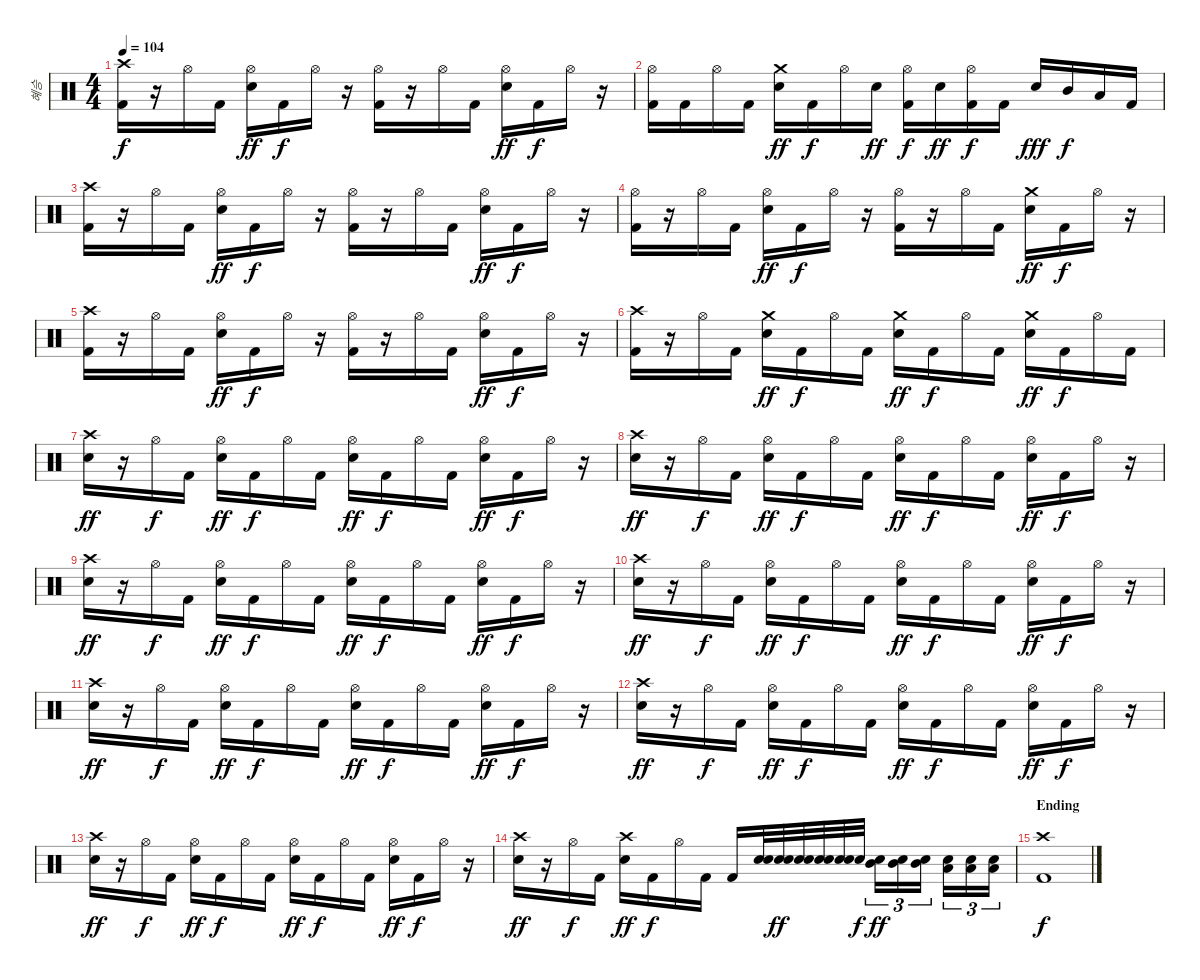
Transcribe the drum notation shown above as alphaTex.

\track ("혜승" "혜승") {instrument percussion}
\staff {score}
\articulation defaults
\ts (4 4)
\tempo 104
\clef neutral
\ks c
("Crash high (hit)" "Kick (hit) 2").16{dy f} r.16 "Hi-Hat (open)".16 "Kick (hit) 2".16 ("Hi-Hat (open)" "Electric Snare (hit)").16{dy ff} "Kick (hit) 2".16{dy f} "Hi-Hat (open)".16 r.16 ("Hi-Hat (open)" "Kick (hit) 2").16 r.16 "Hi-Hat (open)".16 "Kick (hit) 2".16 ("Hi-Hat (open)" "Electric Snare (hit)").16{dy ff} "Kick (hit) 2".16{dy f} "Hi-Hat (open)".16 r.16 |
("Hi-Hat (open)" "Kick (hit) 2").16 "Kick (hit) 2".16 "Hi-Hat (open)".16 "Kick (hit) 2".16 ("Crash medium (hit)" "Electric Snare (hit)").16{dy ff} "Kick (hit) 2".16{dy f} "Hi-Hat (open)".16 "Electric Snare (hit)".16{dy ff} ("Hi-Hat (open)" "Kick (hit) 2").16{dy f} "Electric Snare (hit)".16{dy ff} ("Hi-Hat (open)" "Kick (hit) 2").16{dy f} "Kick (hit) 2".16 "Electric Snare (hit)".16{dy fff} "Mid Tom (hit)".16{dy f} "Low Tom (hit)".16 "Kick (hit) 2".16 |
("Crash high (hit)" "Kick (hit) 2").16 r.16 "Hi-Hat (open)".16 "Kick (hit) 2".16 ("Hi-Hat (open)" "Electric Snare (hit)").16{dy ff} "Kick (hit) 2".16{dy f} "Hi-Hat (open)".16 r.16 ("Hi-Hat (open)" "Kick (hit) 2").16 r.16 "Hi-Hat (open)".16 "Kick (hit) 2".16 ("Hi-Hat (open)" "Electric Snare (hit)").16{dy ff} "Kick (hit) 2".16{dy f} "Hi-Hat (open)".16 r.16 |
("Hi-Hat (open)" "Kick (hit) 2").16 r.16 "Hi-Hat (open)".16 "Kick (hit) 2".16 ("Hi-Hat (open)" "Electric Snare (hit)").16{dy ff} "Kick (hit) 2".16{dy f} "Hi-Hat (open)".16 r.16 ("Hi-Hat (open)" "Kick (hit) 2").16 r.16 "Hi-Hat (open)".16 "Kick (hit) 2".16 ("Crash medium (hit)" "Electric Snare (hit)").16{dy ff} "Kick (hit) 2".16{dy f} "Hi-Hat (open)".16 r.16 |
("Crash high (hit)" "Kick (hit) 2").16 r.16 "Hi-Hat (open)".16 "Kick (hit) 2".16 ("Hi-Hat (open)" "Electric Snare (hit)").16{dy ff} "Kick (hit) 2".16{dy f} "Hi-Hat (open)".16 r.16 ("Hi-Hat (open)" "Kick (hit) 2").16 r.16 "Hi-Hat (open)".16 "Kick (hit) 2".16 ("Hi-Hat (open)" "Electric Snare (hit)").16{dy ff} "Kick (hit) 2".16{dy f} "Hi-Hat (open)".16 r.16 |
("Crash high (hit)" "Kick (hit) 2").16 r.16 "Hi-Hat (open)".16 "Kick (hit) 2".16 ("Crash medium (hit)" "Electric Snare (hit)").16{dy ff} "Kick (hit) 2".16{dy f} "Hi-Hat (open)".16 "Kick (hit) 2".16 ("Crash medium (hit)" "Electric Snare (hit)").16{dy ff} "Kick (hit) 2".16{dy f} "Hi-Hat (open)".16 "Kick (hit) 2".16 ("Crash medium (hit)" "Electric Snare (hit)").16{dy ff} "Kick (hit) 2".16{dy f} "Hi-Hat (open)".16 "Kick (hit) 2".16 |
("Crash high (hit)" "Electric Snare (hit)").16{dy ff} r.16 "Hi-Hat (open)".16{dy f} "Kick (hit) 2".16 ("Hi-Hat (open)" "Electric Snare (hit)").16{dy ff} "Kick (hit) 2".16{dy f} "Hi-Hat (open)".16 "Kick (hit) 2".16 ("Hi-Hat (open)" "Electric Snare (hit)").16{dy ff} "Kick (hit) 2".16{dy f} "Hi-Hat (open)".16 "Kick (hit) 2".16 ("Hi-Hat (open)" "Electric Snare (hit)").16{dy ff} "Kick (hit) 2".16{dy f} "Hi-Hat (open)".16 r.16 |
("Crash high (hit)" "Electric Snare (hit)").16{dy ff} r.16 "Hi-Hat (open)".16{dy f} "Kick (hit) 2".16 ("Hi-Hat (open)" "Electric Snare (hit)").16{dy ff} "Kick (hit) 2".16{dy f} "Hi-Hat (open)".16 "Kick (hit) 2".16 ("Hi-Hat (open)" "Electric Snare (hit)").16{dy ff} "Kick (hit) 2".16{dy f} "Hi-Hat (open)".16 "Kick (hit) 2".16 ("Hi-Hat (open)" "Electric Snare (hit)").16{dy ff} "Kick (hit) 2".16{dy f} "Hi-Hat (open)".16 r.16 |
("Crash high (hit)" "Electric Snare (hit)").16{dy ff} r.16 "Hi-Hat (open)".16{dy f} "Kick (hit) 2".16 ("Hi-Hat (open)" "Electric Snare (hit)").16{dy ff} "Kick (hit) 2".16{dy f} "Hi-Hat (open)".16 "Kick (hit) 2".16 ("Hi-Hat (open)" "Electric Snare (hit)").16{dy ff} "Kick (hit) 2".16{dy f} "Hi-Hat (open)".16 "Kick (hit) 2".16 ("Hi-Hat (open)" "Electric Snare (hit)").16{dy ff} "Kick (hit) 2".16{dy f} "Hi-Hat (open)".16 r.16 |
("Crash high (hit)" "Electric Snare (hit)").16{dy ff} r.16 "Hi-Hat (open)".16{dy f} "Kick (hit) 2".16 ("Hi-Hat (open)" "Electric Snare (hit)").16{dy ff} "Kick (hit) 2".16{dy f} "Hi-Hat (open)".16 "Kick (hit) 2".16 ("Hi-Hat (open)" "Electric Snare (hit)").16{dy ff} "Kick (hit) 2".16{dy f} "Hi-Hat (open)".16 "Kick (hit) 2".16 ("Hi-Hat (open)" "Electric Snare (hit)").16{dy ff} "Kick (hit) 2".16{dy f} "Hi-Hat (open)".16 r.16 |
("Crash high (hit)" "Electric Snare (hit)").16{dy ff} r.16 "Hi-Hat (open)".16{dy f} "Kick (hit) 2".16 ("Hi-Hat (open)" "Electric Snare (hit)").16{dy ff} "Kick (hit) 2".16{dy f} "Hi-Hat (open)".16 "Kick (hit) 2".16 ("Hi-Hat (open)" "Electric Snare (hit)").16{dy ff} "Kick (hit) 2".16{dy f} "Hi-Hat (open)".16 "Kick (hit) 2".16 ("Hi-Hat (open)" "Electric Snare (hit)").16{dy ff} "Kick (hit) 2".16{dy f} "Hi-Hat (open)".16 r.16 |
("Crash high (hit)" "Electric Snare (hit)").16{dy ff} r.16 "Hi-Hat (open)".16{dy f} "Kick (hit) 2".16 ("Hi-Hat (open)" "Electric Snare (hit)").16{dy ff} "Kick (hit) 2".16{dy f} "Hi-Hat (open)".16 "Kick (hit) 2".16 ("Hi-Hat (open)" "Electric Snare (hit)").16{dy ff} "Kick (hit) 2".16{dy f} "Hi-Hat (open)".16 "Kick (hit) 2".16 ("Hi-Hat (open)" "Electric Snare (hit)").16{dy ff} "Kick (hit) 2".16{dy f} "Hi-Hat (open)".16 r.16 |
("Crash high (hit)" "Electric Snare (hit)").16{dy ff} r.16 "Hi-Hat (open)".16{dy f} "Kick (hit) 2".16 ("Hi-Hat (open)" "Electric Snare (hit)").16{dy ff} "Kick (hit) 2".16{dy f} "Hi-Hat (open)".16 "Kick (hit) 2".16 ("Hi-Hat (open)" "Electric Snare (hit)").16{dy ff} "Kick (hit) 2".16{dy f} "Hi-Hat (open)".16 "Kick (hit) 2".16 ("Hi-Hat (open)" "Electric Snare (hit)").16{dy ff} "Kick (hit) 2".16{dy f} "Hi-Hat (open)".16 r.16 |
("Crash high (hit)" "Electric Snare (hit)").16{dy ff} r.16 "Hi-Hat (open)".16{dy f} "Kick (hit) 2".16 ("Crash high (hit)" "Electric Snare (hit)").16{dy ff} "Kick (hit) 2".16{dy f} "Hi-Hat (open)".16 "Kick (hit) 2".16 "Kick (hit) 2".16 ("Electric Snare (hit)" "Snare (hit)"{x}).32 ("Electric Snare (hit)" "Snare (hit)"{x}).32{dy ff} ("Electric Snare (hit)" "Snare (hit)"{x}).32 ("Electric Snare (hit)" "Snare (hit)"{x}).32 ("Electric Snare (hit)" "Snare (hit)"{x}).32 "Snare (hit)"{x}.32{dy f} ("Mid Tom (hit)" "Snare (hit)"{x}).16{tu (3 2) dy ff} ("Mid Tom (hit)" "Snare (hit)"{x}).16{tu (3 2)} ("Mid Tom (hit)" "Snare (hit)"{x}).16{tu (3 2)} ("Low Tom (hit)" "Snare (hit)"{x}).16{tu (3 2)} ("Low Tom (hit)" "Snare (hit)"{x}).16{tu (3 2)} ("Low Tom (hit)" "Snare (hit)"{x}).16{tu (3 2)} |
\section ("" "Ending")
("Crash high (hit)" "Kick (hit) 2").1{dy f}
